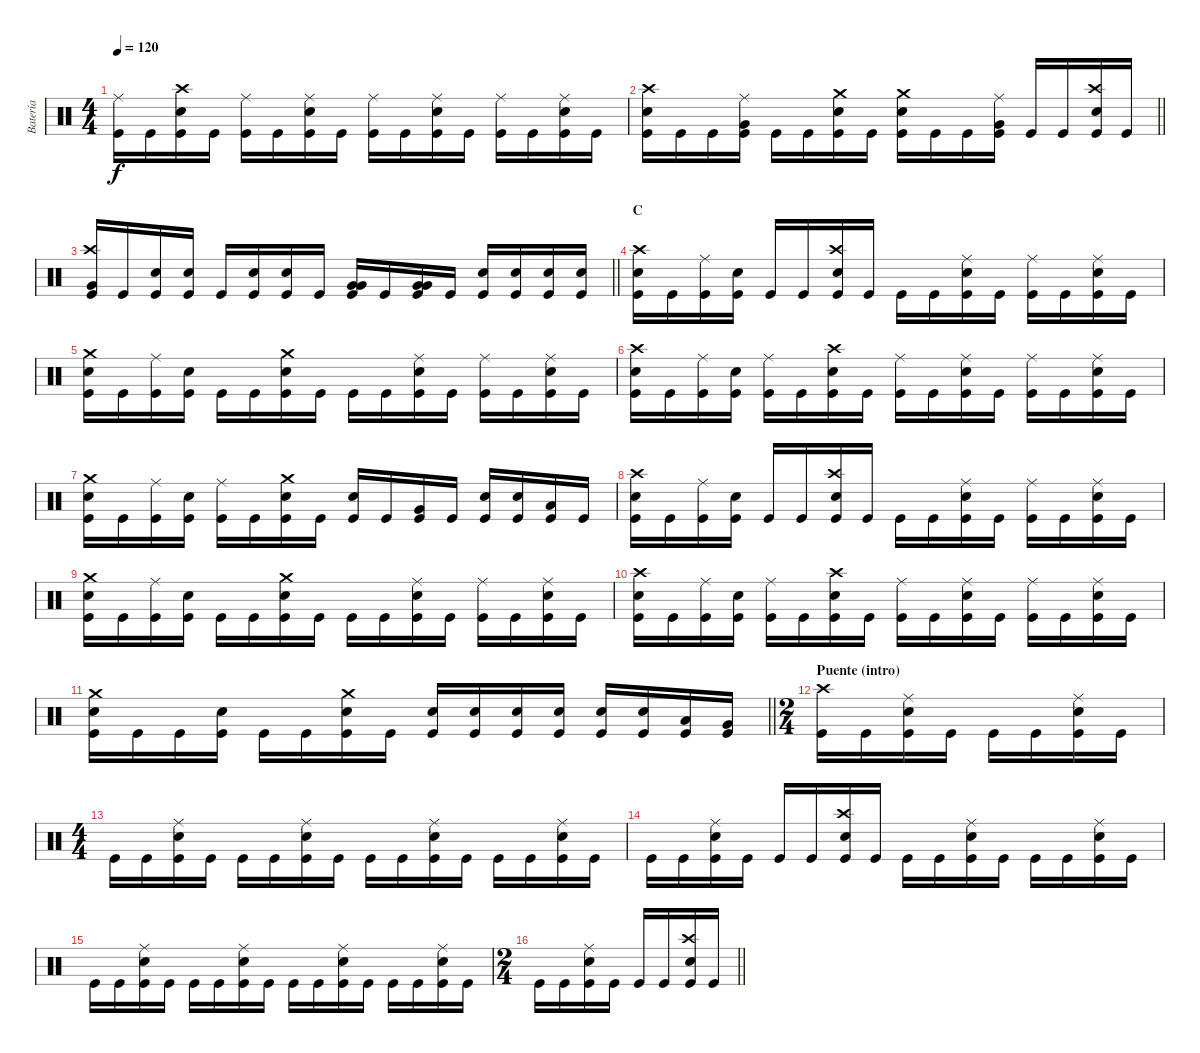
\track ("Batería" "Batería") {instrument percussion}
\staff {score}
\articulation defaults
\ts (4 4)
\tempo 120
\clef neutral
\ks c
("Ride (middle)" "Kick (hit)").16{dy f} "Kick (hit)".16 ("Crash high (hit)" "Snare (hit) 2" "Kick (hit)").16 "Kick (hit)".16 ("Ride (middle)" "Kick (hit)").16 "Kick (hit)".16 ("Ride (middle)" "Snare (hit) 2" "Kick (hit)").16 "Kick (hit)".16 ("Ride (middle)" "Kick (hit)").16 "Kick (hit)".16 ("Ride (middle)" "Snare (hit) 2" "Kick (hit)").16 "Kick (hit)".16 ("Ride (middle)" "Kick (hit)").16 "Kick (hit)".16 ("Ride (middle)" "Snare (hit) 2" "Kick (hit)").16 "Kick (hit)".16 |
\barLineRight lightlight
("Crash high (hit)" "Snare (hit) 2" "Kick (hit)").16 "Kick (hit)".16 "Kick (hit)".16 ("Ride (middle)" "Very Low Tom (hit)" "Kick (hit)").16 "Kick (hit)".16 "Kick (hit)".16 ("Crash medium (hit)" "Snare (hit) 2" "Kick (hit)").16 "Kick (hit)".16 ("Crash medium (hit)" "Snare (hit) 2" "Kick (hit)").16 "Kick (hit)".16 "Kick (hit)".16 ("Ride (middle)" "Very Low Tom (hit)" "Kick (hit)").16 "Kick (hit)".16 "Kick (hit)".16 ("Crash high (hit)" "Snare (hit) 2" "Kick (hit)").16 "Kick (hit)".16 |
\barLineRight lightlight
("Crash high (hit)" "Very Low Tom (hit)" "Kick (hit)").16 "Kick (hit)".16 ("Snare (hit) 2" "Kick (hit)").16 ("Snare (hit) 2" "Kick (hit)").16 "Kick (hit)".16 ("Snare (hit) 2" "Kick (hit)").16 ("Snare (hit) 2" "Kick (hit)").16 "Kick (hit)".16 ("Very Low Tom (hit)" "Very Low Tom (hit)" "Kick (hit)").16 "Kick (hit)".16 ("Very Low Tom (hit)" "Very Low Tom (hit)" "Kick (hit)").16 "Kick (hit)".16 ("Snare (hit) 2" "Kick (hit)").16 ("Snare (hit) 2" "Kick (hit)").16 ("Snare (hit) 2" "Kick (hit)").16 ("Snare (hit) 2" "Kick (hit)").16 |
\section ("" "C")
("Crash high (hit)" "Snare (hit) 2" "Kick (hit)").16 "Kick (hit)".16 ("Ride (middle)" "Kick (hit)").16 ("Snare (hit) 2" "Kick (hit)").16 "Kick (hit)".16 "Kick (hit)".16 ("Crash high (hit)" "Snare (hit) 2" "Kick (hit)").16 "Kick (hit)".16 "Kick (hit)".16 "Kick (hit)".16 ("Ride (middle)" "Snare (hit) 2" "Kick (hit)").16 "Kick (hit)".16 ("Ride (middle)" "Kick (hit)").16 "Kick (hit)".16 ("Ride (middle)" "Snare (hit) 2" "Kick (hit)").16 "Kick (hit)".16 |
("Crash medium (hit)" "Snare (hit) 2" "Kick (hit)").16 "Kick (hit)".16 ("Ride (middle)" "Kick (hit)").16 ("Snare (hit) 2" "Kick (hit)").16 "Kick (hit)".16 "Kick (hit)".16 ("Crash medium (hit)" "Snare (hit) 2" "Kick (hit)").16 "Kick (hit)".16 "Kick (hit)".16 "Kick (hit)".16 ("Ride (middle)" "Snare (hit) 2" "Kick (hit)").16 "Kick (hit)".16 ("Ride (middle)" "Kick (hit)").16 "Kick (hit)".16 ("Ride (middle)" "Snare (hit) 2" "Kick (hit)").16 "Kick (hit)".16 |
("Crash high (hit)" "Snare (hit) 2" "Kick (hit)").16 "Kick (hit)".16 ("Ride (middle)" "Kick (hit)").16 ("Snare (hit) 2" "Kick (hit)").16 ("Ride (middle)" "Kick (hit)").16 "Kick (hit)".16 ("Crash high (hit)" "Snare (hit) 2" "Kick (hit)").16 "Kick (hit)".16 ("Ride (middle)" "Kick (hit)").16 "Kick (hit)".16 ("Ride (middle)" "Snare (hit) 2" "Kick (hit)").16 "Kick (hit)".16 ("Ride (middle)" "Kick (hit)").16 "Kick (hit)".16 ("Ride (middle)" "Snare (hit) 2" "Kick (hit)").16 "Kick (hit)".16 |
("Crash medium (hit)" "Snare (hit) 2" "Kick (hit)").16 "Kick (hit)".16 ("Ride (middle)" "Kick (hit)").16 ("Snare (hit) 2" "Kick (hit)").16 ("Ride (middle)" "Kick (hit)").16 "Kick (hit)".16 ("Crash medium (hit)" "Snare (hit) 2" "Kick (hit)").16 "Kick (hit)".16 ("Snare (hit) 2" "Kick (hit)").16 "Kick (hit)".16 ("Very Low Tom (hit)" "Kick (hit)").16 "Kick (hit)".16 ("Snare (hit) 2" "Kick (hit)").16 ("Snare (hit) 2" "Kick (hit)").16 ("Low Tom (hit)" "Kick (hit)").16 "Kick (hit)".16 |
("Crash high (hit)" "Snare (hit) 2" "Kick (hit)").16 "Kick (hit)".16 ("Ride (middle)" "Kick (hit)").16 ("Snare (hit) 2" "Kick (hit)").16 "Kick (hit)".16 "Kick (hit)".16 ("Crash high (hit)" "Snare (hit) 2" "Kick (hit)").16 "Kick (hit)".16 "Kick (hit)".16 "Kick (hit)".16 ("Ride (middle)" "Snare (hit) 2" "Kick (hit)").16 "Kick (hit)".16 ("Ride (middle)" "Kick (hit)").16 "Kick (hit)".16 ("Ride (middle)" "Snare (hit) 2" "Kick (hit)").16 "Kick (hit)".16 |
("Crash medium (hit)" "Snare (hit) 2" "Kick (hit)").16 "Kick (hit)".16 ("Ride (middle)" "Kick (hit)").16 ("Snare (hit) 2" "Kick (hit)").16 "Kick (hit)".16 "Kick (hit)".16 ("Crash medium (hit)" "Snare (hit) 2" "Kick (hit)").16 "Kick (hit)".16 "Kick (hit)".16 "Kick (hit)".16 ("Ride (middle)" "Snare (hit) 2" "Kick (hit)").16 "Kick (hit)".16 ("Ride (middle)" "Kick (hit)").16 "Kick (hit)".16 ("Ride (middle)" "Snare (hit) 2" "Kick (hit)").16 "Kick (hit)".16 |
("Crash high (hit)" "Snare (hit) 2" "Kick (hit)").16 "Kick (hit)".16 ("Ride (middle)" "Kick (hit)").16 ("Snare (hit) 2" "Kick (hit)").16 ("Ride (middle)" "Kick (hit)").16 "Kick (hit)".16 ("Crash high (hit)" "Snare (hit) 2" "Kick (hit)").16 "Kick (hit)".16 ("Ride (middle)" "Kick (hit)").16 "Kick (hit)".16 ("Ride (middle)" "Snare (hit) 2" "Kick (hit)").16 "Kick (hit)".16 ("Ride (middle)" "Kick (hit)").16 "Kick (hit)".16 ("Ride (middle)" "Snare (hit) 2" "Kick (hit)").16 "Kick (hit)".16 |
\barLineRight lightlight
("Crash medium (hit)" "Snare (hit) 2" "Kick (hit)").16 "Kick (hit)".16 "Kick (hit)".16 ("Snare (hit) 2" "Kick (hit)").16 "Kick (hit)".16 "Kick (hit)".16 ("Crash medium (hit)" "Snare (hit) 2" "Kick (hit)").16 "Kick (hit)".16 ("Snare (hit) 2" "Kick (hit)").16 ("Snare (hit) 2" "Kick (hit)").16 ("Snare (hit) 2" "Kick (hit)").16 ("Snare (hit) 2" "Kick (hit)").16 ("Snare (hit) 2" "Kick (hit)").16 ("Snare (hit) 2" "Kick (hit)").16 ("Low Tom (hit)" "Kick (hit)").16 ("Very Low Tom (hit)" "Kick (hit)").16 |
\ts (2 4)
\section ("" "Puente (intro)")
("Crash high (hit)" "Kick (hit)").16 "Kick (hit)".16 ("Ride (middle)" "Snare (hit) 2" "Kick (hit)").16 "Kick (hit)".16 "Kick (hit)".16 "Kick (hit)".16 ("Ride (middle)" "Snare (hit) 2" "Kick (hit)").16 "Kick (hit)".16 |
\ts (4 4)
"Kick (hit)".16 "Kick (hit)".16 ("Ride (middle)" "Snare (hit) 2" "Kick (hit)").16 "Kick (hit)".16 "Kick (hit)".16 "Kick (hit)".16 ("Ride (middle)" "Snare (hit) 2" "Kick (hit)").16 "Kick (hit)".16 "Kick (hit)".16 "Kick (hit)".16 ("Ride (middle)" "Snare (hit) 2" "Kick (hit)").16 "Kick (hit)".16 "Kick (hit)".16 "Kick (hit)".16 ("Ride (middle)" "Snare (hit) 2" "Kick (hit)").16 "Kick (hit)".16 |
"Kick (hit)".16 "Kick (hit)".16 ("Ride (middle)" "Snare (hit) 2" "Kick (hit)").16 "Kick (hit)".16 "Kick (hit)".16 "Kick (hit)".16 ("Crash high (hit)" "Snare (hit) 2" "Kick (hit)").16 "Kick (hit)".16 "Kick (hit)".16 "Kick (hit)".16 ("Ride (middle)" "Snare (hit) 2" "Kick (hit)").16 "Kick (hit)".16 "Kick (hit)".16 "Kick (hit)".16 ("Ride (middle)" "Snare (hit) 2" "Kick (hit)").16 "Kick (hit)".16 |
"Kick (hit)".16 "Kick (hit)".16 ("Ride (middle)" "Snare (hit) 2" "Kick (hit)").16 "Kick (hit)".16 "Kick (hit)".16 "Kick (hit)".16 ("Ride (middle)" "Snare (hit) 2" "Kick (hit)").16 "Kick (hit)".16 "Kick (hit)".16 "Kick (hit)".16 ("Ride (middle)" "Snare (hit) 2" "Kick (hit)").16 "Kick (hit)".16 "Kick (hit)".16 "Kick (hit)".16 ("Ride (middle)" "Snare (hit) 2" "Kick (hit)").16 "Kick (hit)".16 |
\ts (2 4)
\barLineRight lightlight "Kick (hit)".16 "Kick (hit)".16
("Ride (middle)" "Snare (hit) 2" "Kick (hit)").16 "Kick (hit)".16 "Kick (hit)".16 "Kick (hit)".16 ("Crash high (hit)" "Snare (hit) 2" "Kick (hit)").16 "Kick (hit)".16
